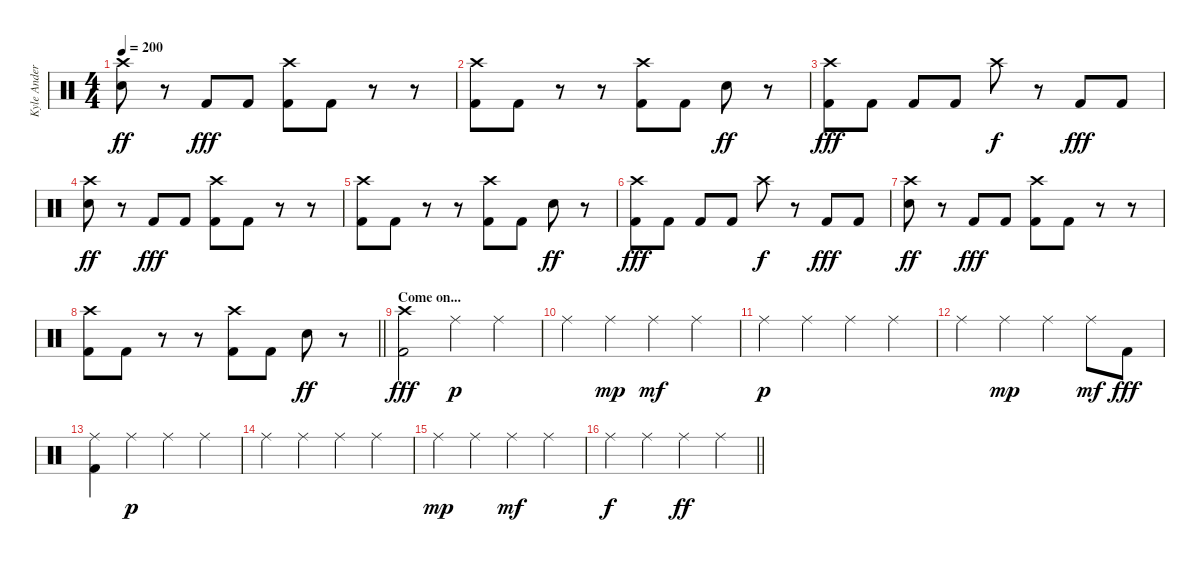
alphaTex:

\track ("Kyle Anderson" "Kyle Ander") {instrument percussion}
\staff {score}
\articulation defaults
\ts (4 4)
\tempo 200
\clef neutral
\ks c
("Crash high (hit)" "Electric Snare (hit)").8{dy ff} r.8 "Kick (hit) 2".8{dy fff} "Kick (hit) 2".8 ("Crash high (hit)" "Kick (hit) 2").8 "Kick (hit) 2".8 r.8 r.8 |
("Crash high (hit)" "Kick (hit) 2").8 "Kick (hit) 2".8 r.8 r.8 ("Crash high (hit)" "Kick (hit) 2").8 "Kick (hit) 2".8 "Electric Snare (hit)".8{dy ff} r.8 |
("Crash high (hit)" "Kick (hit) 2").8{dy fff} "Kick (hit) 2".8 "Kick (hit) 2".8 "Kick (hit) 2".8 "Crash high (hit)".8{dy f} r.8 "Kick (hit) 2".8{dy fff} "Kick (hit) 2".8 |
("Crash high (hit)" "Electric Snare (hit)").8{dy ff} r.8 "Kick (hit) 2".8{dy fff} "Kick (hit) 2".8 ("Crash high (hit)" "Kick (hit) 2").8 "Kick (hit) 2".8 r.8 r.8 |
("Crash high (hit)" "Kick (hit) 2").8 "Kick (hit) 2".8 r.8 r.8 ("Crash high (hit)" "Kick (hit) 2").8 "Kick (hit) 2".8 "Electric Snare (hit)".8{dy ff} r.8 |
("Crash high (hit)" "Kick (hit) 2").8{dy fff} "Kick (hit) 2".8 "Kick (hit) 2".8 "Kick (hit) 2".8 "Crash high (hit)".8{dy f} r.8 "Kick (hit) 2".8{dy fff} "Kick (hit) 2".8 |
("Crash high (hit)" "Electric Snare (hit)").8{dy ff} r.8 "Kick (hit) 2".8{dy fff} "Kick (hit) 2".8 ("Crash high (hit)" "Kick (hit) 2").8 "Kick (hit) 2".8 r.8 r.8 |
\barLineRight lightlight
("Crash high (hit)" "Kick (hit) 2").8 "Kick (hit) 2".8 r.8 r.8 ("Crash high (hit)" "Kick (hit) 2").8 "Kick (hit) 2".8 "Electric Snare (hit)".8{dy ff} r.8 |
\section ("" "Come on...")
("Crash high (hit)" "Kick (hit) 2").2{dy fff} "Ride (middle)".4{dy p} "Ride (middle)".4 |
"Ride (middle)".4 "Ride (middle)".4{dy mp} "Ride (middle)".4{dy mf} "Ride (middle)".4 |
"Ride (middle)".4{dy p} "Ride (middle)".4 "Ride (middle)".4 "Ride (middle)".4 |
"Ride (middle)".4 "Ride (middle)".4{dy mp} "Ride (middle)".4 "Ride (middle)".8{dy mf} "Kick (hit) 2".8{dy fff} |
("Ride (middle)" "Kick (hit) 2").4 "Ride (middle)".4{dy p} "Ride (middle)".4 "Ride (middle)".4 |
"Ride (middle)".4 "Ride (middle)".4 "Ride (middle)".4 "Ride (middle)".4 |
"Ride (middle)".4{dy mp} "Ride (middle)".4 "Ride (middle)".4{dy mf} "Ride (middle)".4 |
\barLineRight lightlight "Ride (middle)".4{dy f} "Ride (middle)".4 "Ride (middle)".4{dy ff} "Ride (middle)".4
